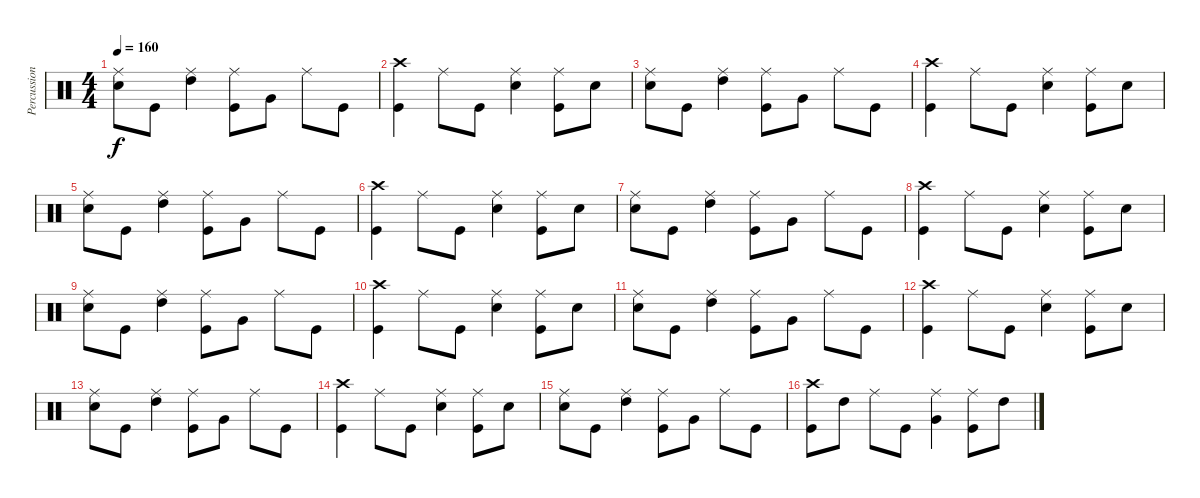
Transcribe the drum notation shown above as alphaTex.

\track ("Percussion" "Percussion") {instrument percussion}
\staff {score}
\articulation defaults
\ts (4 4)
\tempo 160
\clef neutral
\ks c
("Ride (middle)" "Snare (hit) 2").8{dy f} "Kick (hit)".8 ("High Tom (hit)" "Ride (middle)").4 ("Ride (middle)" "Kick (hit)").8 "Very Low Tom (hit)".8 "Ride (middle)".8 "Kick (hit)".8 |
("Crash high (hit)" "Kick (hit)").4 "Ride (middle)".8 "Kick (hit)".8 ("Ride (middle)" "Snare (hit) 2").4 ("Ride (middle)" "Kick (hit)").8 "Snare (hit) 2".8 |
("Ride (middle)" "Snare (hit) 2").8 "Kick (hit)".8 ("High Tom (hit)" "Ride (middle)").4 ("Ride (middle)" "Kick (hit)").8 "Very Low Tom (hit)".8 "Ride (middle)".8 "Kick (hit)".8 |
("Crash high (hit)" "Kick (hit)").4 "Ride (middle)".8 "Kick (hit)".8 ("Ride (middle)" "Snare (hit) 2").4 ("Ride (middle)" "Kick (hit)").8 "Snare (hit) 2".8 |
("Ride (middle)" "Snare (hit) 2").8 "Kick (hit)".8 ("High Tom (hit)" "Ride (middle)").4 ("Ride (middle)" "Kick (hit)").8 "Very Low Tom (hit)".8 "Ride (middle)".8 "Kick (hit)".8 |
("Crash high (hit)" "Kick (hit)").4 "Ride (middle)".8 "Kick (hit)".8 ("Ride (middle)" "Snare (hit) 2").4 ("Ride (middle)" "Kick (hit)").8 "Snare (hit) 2".8 |
("Ride (middle)" "Snare (hit) 2").8 "Kick (hit)".8 ("High Tom (hit)" "Ride (middle)").4 ("Ride (middle)" "Kick (hit)").8 "Very Low Tom (hit)".8 "Ride (middle)".8 "Kick (hit)".8 |
("Crash high (hit)" "Kick (hit)").4 "Ride (middle)".8 "Kick (hit)".8 ("Ride (middle)" "Snare (hit) 2").4 ("Ride (middle)" "Kick (hit)").8 "Snare (hit) 2".8 |
("Ride (middle)" "Snare (hit) 2").8 "Kick (hit)".8 ("High Tom (hit)" "Ride (middle)").4 ("Ride (middle)" "Kick (hit)").8 "Very Low Tom (hit)".8 "Ride (middle)".8 "Kick (hit)".8 |
("Crash high (hit)" "Kick (hit)").4 "Ride (middle)".8 "Kick (hit)".8 ("Ride (middle)" "Snare (hit) 2").4 ("Ride (middle)" "Kick (hit)").8 "Snare (hit) 2".8 |
("Ride (middle)" "Snare (hit) 2").8 "Kick (hit)".8 ("High Tom (hit)" "Ride (middle)").4 ("Ride (middle)" "Kick (hit)").8 "Very Low Tom (hit)".8 "Ride (middle)".8 "Kick (hit)".8 |
("Crash high (hit)" "Kick (hit)").4 "Ride (middle)".8 "Kick (hit)".8 ("Ride (middle)" "Snare (hit) 2").4 ("Ride (middle)" "Kick (hit)").8 "Snare (hit) 2".8 |
("Ride (middle)" "Snare (hit) 2").8 "Kick (hit)".8 ("High Tom (hit)" "Ride (middle)").4 ("Ride (middle)" "Kick (hit)").8 "Very Low Tom (hit)".8 "Ride (middle)".8 "Kick (hit)".8 |
("Crash high (hit)" "Kick (hit)").4 "Ride (middle)".8 "Kick (hit)".8 ("Ride (middle)" "Snare (hit) 2").4 ("Ride (middle)" "Kick (hit)").8 "Snare (hit) 2".8 |
("Ride (middle)" "Snare (hit) 2").8 "Kick (hit)".8 ("High Tom (hit)" "Ride (middle)").4 ("Ride (middle)" "Kick (hit)").8 "Very Low Tom (hit)".8 "Ride (middle)".8 "Kick (hit)".8 |
("Crash high (hit)" "Kick (hit)").8 "High Tom (hit)".8 "Ride (middle)".8 "Kick (hit)".8 ("Ride (middle)" "Very Low Tom (hit)").4 ("Ride (middle)" "Kick (hit)").8 "High Tom (hit)".8
